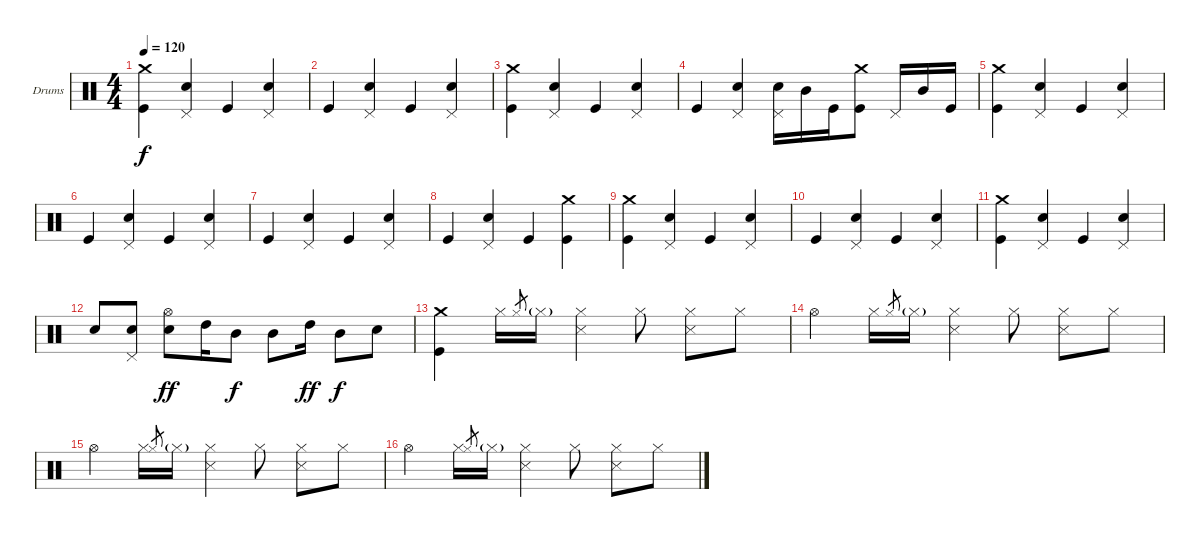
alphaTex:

\defaultSystemsLayout 4
\bracketExtendMode groupsimilarinstruments
\firstSystemTrackNameOrientation horizontal
\otherSystemsTrackNameOrientation horizontal
\track ("Drumkit" "Drums") {instrument percussion}
\staff {score}
\articulation defaults
\ts (4 4)
\tempo 120
\clef neutral
\ks c
("Kick (hit)" "Crash medium (hit)").4{dy f} ("Pedal Hi-Hat (hit)" "Snare (hit) 2").4 "Kick (hit)".4 ("Pedal Hi-Hat (hit)" "Snare (hit) 2").4 |
"Kick (hit)".4 ("Pedal Hi-Hat (hit)" "Snare (hit) 2").4 "Kick (hit)".4 ("Pedal Hi-Hat (hit)" "Snare (hit) 2").4 |
("Kick (hit)" "Crash medium (hit)").4 ("Pedal Hi-Hat (hit)" "Snare (hit) 2").4 "Kick (hit)".4 ("Pedal Hi-Hat (hit)" "Snare (hit) 2").4 |
"Kick (hit)".4 ("Pedal Hi-Hat (hit)" "Snare (hit) 2").4 ("Pedal Hi-Hat (hit)" "Snare (hit) 2").16 "Mid Tom (hit)".16 "Kick (hit)".16 ("Kick (hit)" "Crash medium (hit)").8 "Pedal Hi-Hat (hit)".16 "Mid Tom (hit)".16 "Kick (hit)".16 |
("Kick (hit)" "Crash medium (hit)").4 ("Pedal Hi-Hat (hit)" "Snare (hit) 2").4 "Kick (hit)".4 ("Pedal Hi-Hat (hit)" "Snare (hit) 2").4 |
"Kick (hit)".4 ("Pedal Hi-Hat (hit)" "Snare (hit) 2").4 "Kick (hit)".4 ("Pedal Hi-Hat (hit)" "Snare (hit) 2").4 |
"Kick (hit)".4 ("Pedal Hi-Hat (hit)" "Snare (hit) 2").4 "Kick (hit)".4 ("Pedal Hi-Hat (hit)" "Snare (hit) 2").4 |
"Kick (hit)".4 ("Pedal Hi-Hat (hit)" "Snare (hit) 2").4 "Kick (hit)".4 ("Kick (hit)" "Crash medium (hit)").4 |
("Kick (hit)" "Crash medium (hit)").4 ("Pedal Hi-Hat (hit)" "Snare (hit) 2").4 "Kick (hit)".4 ("Pedal Hi-Hat (hit)" "Snare (hit) 2").4 |
"Kick (hit)".4 ("Pedal Hi-Hat (hit)" "Snare (hit) 2").4 "Kick (hit)".4 ("Pedal Hi-Hat (hit)" "Snare (hit) 2").4 |
("Kick (hit)" "Crash medium (hit)").4 ("Pedal Hi-Hat (hit)" "Snare (hit) 2").4 "Kick (hit)".4 ("Pedal Hi-Hat (hit)" "Snare (hit) 2").4 |
"Snare (hit) 2".8 ("Snare (hit) 2" "Pedal Hi-Hat (hit)").8 ("Snare (hit) 2" "Hi-Hat (open)").8{dy ff} "High Tom (hit)".16 "Mid Tom (hit)".8{dy f} "Mid Tom (hit)".8 "High Tom (hit)".16{dy ff} "Mid Tom (hit)".8{dy f} "Snare (hit) 2".8 |
("Kick (hit)" "Crash medium (hit)").4 "Hi-Hat (closed)".16 "Hi-Hat (closed)".8{gr} "Hi-Hat (closed)"{g}.16 ("Hi-Hat (closed)" "Snare (side stick) 3").4 "Hi-Hat (closed)".8 ("Hi-Hat (closed)" "Snare (side stick) 3").8 "Hi-Hat (closed)".8 |
"Hi-Hat (open)".4 "Hi-Hat (closed)".16 "Hi-Hat (closed)".8{gr} "Hi-Hat (closed)"{g}.16 ("Hi-Hat (closed)" "Snare (side stick) 3").4 "Hi-Hat (closed)".8 ("Hi-Hat (closed)" "Snare (side stick) 3").8 "Hi-Hat (closed)".8 |
"Hi-Hat (open)".4 "Hi-Hat (closed)".16 "Hi-Hat (closed)".8{gr} "Hi-Hat (closed)"{g}.16 ("Hi-Hat (closed)" "Snare (side stick) 3").4 "Hi-Hat (closed)".8 ("Hi-Hat (closed)" "Snare (side stick) 3").8 "Hi-Hat (closed)".8 |
"Hi-Hat (open)".4 "Hi-Hat (closed)".16 "Hi-Hat (closed)".8{gr} "Hi-Hat (closed)"{g}.16 ("Hi-Hat (closed)" "Snare (side stick) 3").4 "Hi-Hat (closed)".8 ("Hi-Hat (closed)" "Snare (side stick) 3").8 "Hi-Hat (closed)".8
